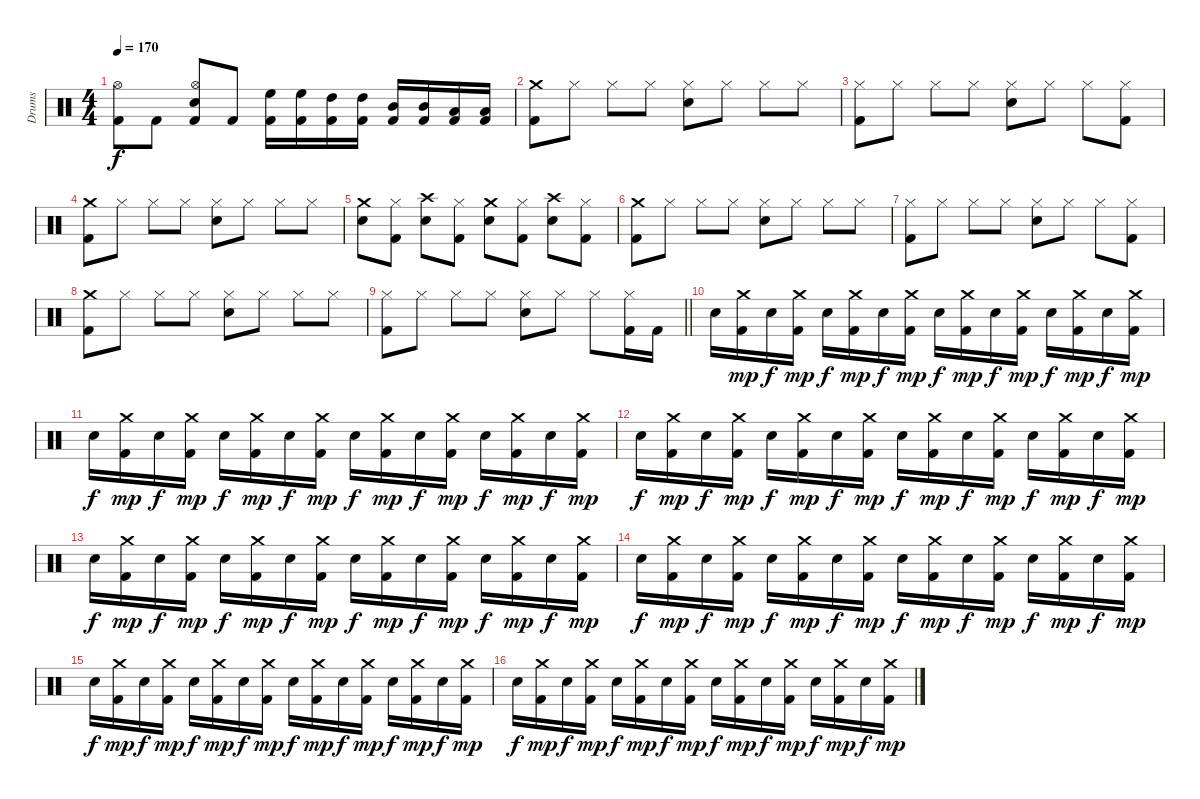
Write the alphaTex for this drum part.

\track ("Drums" "Drums") {instrument percussion}
\staff {score}
\articulation defaults
\ts (4 4)
\tempo 170
\clef neutral
\ks c
("Kick (hit) 2" "Hi-Hat (open)").8{dy f} "Kick (hit) 2".8 ("Kick (hit) 2" "Snare (hit) 2" "Hi-Hat (open)").8 "Kick (hit) 2".8 ("Kick (hit) 2" "High Floor Tom (hit)").16 ("Kick (hit) 2" "High Floor Tom (hit)").16 ("Kick (hit) 2" "High Tom (hit)").16 ("Kick (hit) 2" "High Tom (hit)").16 ("Kick (hit) 2" "Mid Tom (hit)").16 ("Kick (hit) 2" "Mid Tom (hit)").16 ("Kick (hit) 2" "Low Tom (hit)").16 ("Kick (hit) 2" "Low Tom (hit)").16 |
("Kick (hit) 2" "Crash medium (hit)").8 "Hi-Hat (closed)".8 "Hi-Hat (closed)".8 "Hi-Hat (closed)".8 ("Snare (hit) 2" "Hi-Hat (closed)").8 "Hi-Hat (closed)".8 "Hi-Hat (closed)".8 "Hi-Hat (closed)".8 |
("Kick (hit) 2" "Hi-Hat (closed)").8 "Hi-Hat (closed)".8 "Hi-Hat (closed)".8 "Hi-Hat (closed)".8 ("Snare (hit) 2" "Hi-Hat (closed)").8 "Hi-Hat (closed)".8 "Hi-Hat (closed)".8 ("Kick (hit) 2" "Hi-Hat (closed)").8 |
("Kick (hit) 2" "Crash medium (hit)").8 "Hi-Hat (closed)".8 "Hi-Hat (closed)".8 "Hi-Hat (closed)".8 ("Snare (hit) 2" "Hi-Hat (closed)").8 "Hi-Hat (closed)".8 "Hi-Hat (closed)".8 "Hi-Hat (closed)".8 |
("Snare (hit) 2" "Crash medium (hit)").8 ("Kick (hit) 2" "Hi-Hat (closed)").8 ("Snare (hit) 2" "Crash high (hit)").8 ("Kick (hit) 2" "Hi-Hat (closed)").8 ("Snare (hit) 2" "Crash medium (hit)").8 ("Kick (hit) 2" "Hi-Hat (closed)").8 ("Snare (hit) 2" "Crash high (hit)").8 ("Kick (hit) 2" "Hi-Hat (closed)").8 |
("Kick (hit) 2" "Crash medium (hit)").8 "Hi-Hat (closed)".8 "Hi-Hat (closed)".8 "Hi-Hat (closed)".8 ("Snare (hit) 2" "Hi-Hat (closed)").8 "Hi-Hat (closed)".8 "Hi-Hat (closed)".8 "Hi-Hat (closed)".8 |
("Kick (hit) 2" "Hi-Hat (closed)").8 "Hi-Hat (closed)".8 "Hi-Hat (closed)".8 "Hi-Hat (closed)".8 ("Snare (hit) 2" "Hi-Hat (closed)").8 "Hi-Hat (closed)".8 "Hi-Hat (closed)".8 ("Kick (hit) 2" "Hi-Hat (closed)").8 |
("Kick (hit) 2" "Crash medium (hit)").8 "Hi-Hat (closed)".8 "Hi-Hat (closed)".8 "Hi-Hat (closed)".8 ("Snare (hit) 2" "Hi-Hat (closed)").8 "Hi-Hat (closed)".8 "Hi-Hat (closed)".8 "Hi-Hat (closed)".8 |
\barLineRight lightlight
("Kick (hit) 2" "Hi-Hat (closed)").8 "Hi-Hat (closed)".8 "Hi-Hat (closed)".8 "Hi-Hat (closed)".8 ("Snare (hit) 2" "Hi-Hat (closed)").8 "Hi-Hat (closed)".8 "Hi-Hat (closed)".8 ("Kick (hit) 2" "Hi-Hat (closed)").16 "Kick (hit) 2".16 |
"Snare (hit) 2".16 ("Kick (hit) 2" "Crash medium (hit)").16{dy mp} "Snare (hit) 2".16{dy f} ("Kick (hit) 2" "Crash medium (hit)").16{dy mp} "Snare (hit) 2".16{dy f} ("Kick (hit) 2" "Crash medium (hit)").16{dy mp} "Snare (hit) 2".16{dy f} ("Kick (hit) 2" "Crash medium (hit)").16{dy mp} "Snare (hit) 2".16{dy f} ("Kick (hit) 2" "Crash medium (hit)").16{dy mp} "Snare (hit) 2".16{dy f} ("Kick (hit) 2" "Crash medium (hit)").16{dy mp} "Snare (hit) 2".16{dy f} ("Kick (hit) 2" "Crash medium (hit)").16{dy mp} "Snare (hit) 2".16{dy f} ("Kick (hit) 2" "Crash medium (hit)").16{dy mp} |
"Snare (hit) 2".16{dy f} ("Kick (hit) 2" "Crash medium (hit)").16{dy mp} "Snare (hit) 2".16{dy f} ("Kick (hit) 2" "Crash medium (hit)").16{dy mp} "Snare (hit) 2".16{dy f} ("Kick (hit) 2" "Crash medium (hit)").16{dy mp} "Snare (hit) 2".16{dy f} ("Kick (hit) 2" "Crash medium (hit)").16{dy mp} "Snare (hit) 2".16{dy f} ("Kick (hit) 2" "Crash medium (hit)").16{dy mp} "Snare (hit) 2".16{dy f} ("Kick (hit) 2" "Crash medium (hit)").16{dy mp} "Snare (hit) 2".16{dy f} ("Kick (hit) 2" "Crash medium (hit)").16{dy mp} "Snare (hit) 2".16{dy f} ("Kick (hit) 2" "Crash medium (hit)").16{dy mp} |
"Snare (hit) 2".16{dy f} ("Kick (hit) 2" "Crash medium (hit)").16{dy mp} "Snare (hit) 2".16{dy f} ("Kick (hit) 2" "Crash medium (hit)").16{dy mp} "Snare (hit) 2".16{dy f} ("Kick (hit) 2" "Crash medium (hit)").16{dy mp} "Snare (hit) 2".16{dy f} ("Kick (hit) 2" "Crash medium (hit)").16{dy mp} "Snare (hit) 2".16{dy f} ("Kick (hit) 2" "Crash medium (hit)").16{dy mp} "Snare (hit) 2".16{dy f} ("Kick (hit) 2" "Crash medium (hit)").16{dy mp} "Snare (hit) 2".16{dy f} ("Kick (hit) 2" "Crash medium (hit)").16{dy mp} "Snare (hit) 2".16{dy f} ("Kick (hit) 2" "Crash medium (hit)").16{dy mp} |
"Snare (hit) 2".16{dy f} ("Kick (hit) 2" "Crash medium (hit)").16{dy mp} "Snare (hit) 2".16{dy f} ("Kick (hit) 2" "Crash medium (hit)").16{dy mp} "Snare (hit) 2".16{dy f} ("Kick (hit) 2" "Crash medium (hit)").16{dy mp} "Snare (hit) 2".16{dy f} ("Kick (hit) 2" "Crash medium (hit)").16{dy mp} "Snare (hit) 2".16{dy f} ("Kick (hit) 2" "Crash medium (hit)").16{dy mp} "Snare (hit) 2".16{dy f} ("Kick (hit) 2" "Crash medium (hit)").16{dy mp} "Snare (hit) 2".16{dy f} ("Kick (hit) 2" "Crash medium (hit)").16{dy mp} "Snare (hit) 2".16{dy f} ("Kick (hit) 2" "Crash medium (hit)").16{dy mp} |
"Snare (hit) 2".16{dy f} ("Kick (hit) 2" "Crash medium (hit)").16{dy mp} "Snare (hit) 2".16{dy f} ("Kick (hit) 2" "Crash medium (hit)").16{dy mp} "Snare (hit) 2".16{dy f} ("Kick (hit) 2" "Crash medium (hit)").16{dy mp} "Snare (hit) 2".16{dy f} ("Kick (hit) 2" "Crash medium (hit)").16{dy mp} "Snare (hit) 2".16{dy f} ("Kick (hit) 2" "Crash medium (hit)").16{dy mp} "Snare (hit) 2".16{dy f} ("Kick (hit) 2" "Crash medium (hit)").16{dy mp} "Snare (hit) 2".16{dy f} ("Kick (hit) 2" "Crash medium (hit)").16{dy mp} "Snare (hit) 2".16{dy f} ("Kick (hit) 2" "Crash medium (hit)").16{dy mp} |
"Snare (hit) 2".16{dy f} ("Kick (hit) 2" "Crash medium (hit)").16{dy mp} "Snare (hit) 2".16{dy f} ("Kick (hit) 2" "Crash medium (hit)").16{dy mp} "Snare (hit) 2".16{dy f} ("Kick (hit) 2" "Crash medium (hit)").16{dy mp} "Snare (hit) 2".16{dy f} ("Kick (hit) 2" "Crash medium (hit)").16{dy mp} "Snare (hit) 2".16{dy f} ("Kick (hit) 2" "Crash medium (hit)").16{dy mp} "Snare (hit) 2".16{dy f} ("Kick (hit) 2" "Crash medium (hit)").16{dy mp} "Snare (hit) 2".16{dy f} ("Kick (hit) 2" "Crash medium (hit)").16{dy mp} "Snare (hit) 2".16{dy f} ("Kick (hit) 2" "Crash medium (hit)").16{dy mp} |
"Snare (hit) 2".16{dy f} ("Kick (hit) 2" "Crash medium (hit)").16{dy mp} "Snare (hit) 2".16{dy f} ("Kick (hit) 2" "Crash medium (hit)").16{dy mp} "Snare (hit) 2".16{dy f} ("Kick (hit) 2" "Crash medium (hit)").16{dy mp} "Snare (hit) 2".16{dy f} ("Kick (hit) 2" "Crash medium (hit)").16{dy mp} "Snare (hit) 2".16{dy f} ("Kick (hit) 2" "Crash medium (hit)").16{dy mp} "Snare (hit) 2".16{dy f} ("Kick (hit) 2" "Crash medium (hit)").16{dy mp} "Snare (hit) 2".16{dy f} ("Kick (hit) 2" "Crash medium (hit)").16{dy mp} "Snare (hit) 2".16{dy f} ("Kick (hit) 2" "Crash medium (hit)").16{dy mp}
